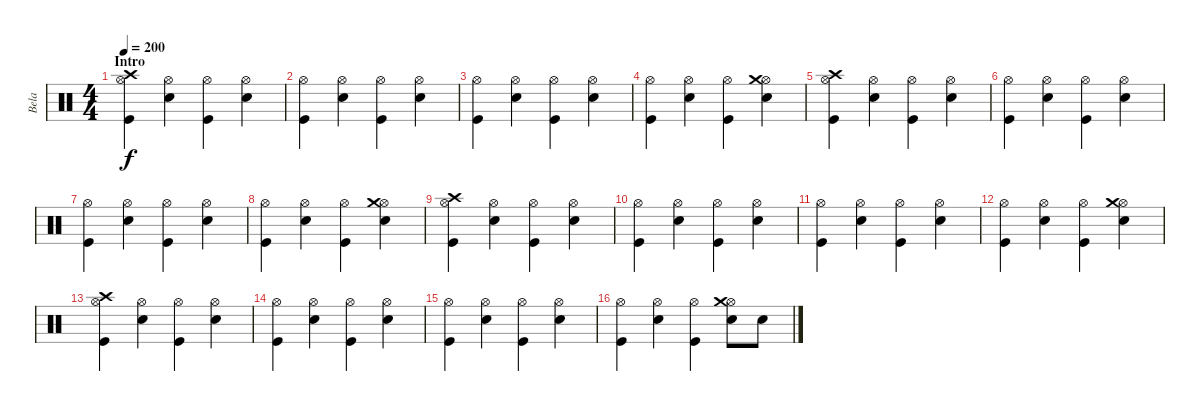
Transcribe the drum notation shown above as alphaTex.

\track ("Bela" "Bela") {instrument percussion}
\staff {score}
\articulation defaults
\ts (4 4)
\section ("" "Intro")
\tempo 200
\clef neutral
\ks c
("Hi-Hat (open)" "Crash high (hit)" "Kick (hit)").4{dy f} ("Hi-Hat (open)" "Electric Snare (hit)").4 ("Hi-Hat (open)" "Kick (hit)").4 ("Hi-Hat (open)" "Electric Snare (hit)").4 |
("Hi-Hat (open)" "Kick (hit)").4 ("Hi-Hat (open)" "Electric Snare (hit)").4 ("Hi-Hat (open)" "Kick (hit)").4 ("Hi-Hat (open)" "Electric Snare (hit)").4 |
("Hi-Hat (open)" "Kick (hit)").4 ("Hi-Hat (open)" "Electric Snare (hit)").4 ("Hi-Hat (open)" "Kick (hit)").4 ("Hi-Hat (open)" "Electric Snare (hit)").4 |
("Hi-Hat (open)" "Kick (hit)").4 ("Hi-Hat (open)" "Electric Snare (hit)").4 ("Hi-Hat (open)" "Kick (hit)").4 ("Hi-Hat (open)" "Crash medium (hit)" "Electric Snare (hit)").4 |
("Hi-Hat (open)" "Crash high (hit)" "Kick (hit)").4 ("Hi-Hat (open)" "Electric Snare (hit)").4 ("Hi-Hat (open)" "Kick (hit)").4 ("Hi-Hat (open)" "Electric Snare (hit)").4 |
("Hi-Hat (open)" "Kick (hit)").4 ("Hi-Hat (open)" "Electric Snare (hit)").4 ("Hi-Hat (open)" "Kick (hit)").4 ("Hi-Hat (open)" "Electric Snare (hit)").4 |
("Hi-Hat (open)" "Kick (hit)").4 ("Hi-Hat (open)" "Electric Snare (hit)").4 ("Hi-Hat (open)" "Kick (hit)").4 ("Hi-Hat (open)" "Electric Snare (hit)").4 |
("Hi-Hat (open)" "Kick (hit)").4 ("Hi-Hat (open)" "Electric Snare (hit)").4 ("Hi-Hat (open)" "Kick (hit)").4 ("Hi-Hat (open)" "Crash medium (hit)" "Electric Snare (hit)").4 |
("Hi-Hat (open)" "Crash high (hit)" "Kick (hit)").4 ("Hi-Hat (open)" "Electric Snare (hit)").4 ("Hi-Hat (open)" "Kick (hit)").4 ("Hi-Hat (open)" "Electric Snare (hit)").4 |
("Hi-Hat (open)" "Kick (hit)").4 ("Hi-Hat (open)" "Electric Snare (hit)").4 ("Hi-Hat (open)" "Kick (hit)").4 ("Hi-Hat (open)" "Electric Snare (hit)").4 |
("Hi-Hat (open)" "Kick (hit)").4 ("Hi-Hat (open)" "Electric Snare (hit)").4 ("Hi-Hat (open)" "Kick (hit)").4 ("Hi-Hat (open)" "Electric Snare (hit)").4 |
("Hi-Hat (open)" "Kick (hit)").4 ("Hi-Hat (open)" "Electric Snare (hit)").4 ("Hi-Hat (open)" "Kick (hit)").4 ("Hi-Hat (open)" "Crash medium (hit)" "Electric Snare (hit)").4 |
("Hi-Hat (open)" "Crash high (hit)" "Kick (hit)").4 ("Hi-Hat (open)" "Electric Snare (hit)").4 ("Hi-Hat (open)" "Kick (hit)").4 ("Hi-Hat (open)" "Electric Snare (hit)").4 |
("Hi-Hat (open)" "Kick (hit)").4 ("Hi-Hat (open)" "Electric Snare (hit)").4 ("Hi-Hat (open)" "Kick (hit)").4 ("Hi-Hat (open)" "Electric Snare (hit)").4 |
("Hi-Hat (open)" "Kick (hit)").4 ("Hi-Hat (open)" "Electric Snare (hit)").4 ("Hi-Hat (open)" "Kick (hit)").4 ("Hi-Hat (open)" "Electric Snare (hit)").4 |
("Hi-Hat (open)" "Kick (hit)").4 ("Hi-Hat (open)" "Electric Snare (hit)").4 ("Hi-Hat (open)" "Kick (hit)").4 ("Hi-Hat (open)" "Crash medium (hit)" "Electric Snare (hit)").8 "Electric Snare (hit)".8
